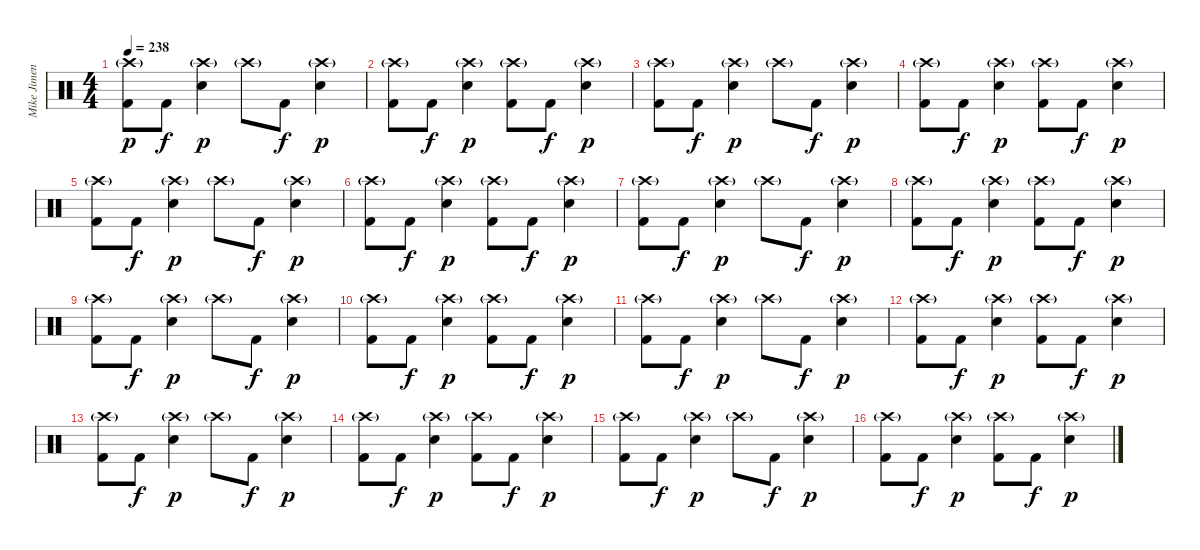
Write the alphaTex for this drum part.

\track ("Mike Jimenez" "Mike Jimen") {instrument percussion}
\staff {score}
\articulation defaults
\ts (4 4)
\tempo 238
\clef neutral
\ks c
("Crash high (hit)"{g} "Kick (hit) 2").8{dy p} "Kick (hit) 2".8{dy f} ("Crash high (hit)"{g} "Electric Snare (hit)").4{dy p} "Crash high (hit)"{g}.8 "Kick (hit) 2".8{dy f} ("Crash high (hit)"{g} "Electric Snare (hit)").4{dy p} |
("Crash high (hit)"{g} "Kick (hit) 2").8 "Kick (hit) 2".8{dy f} ("Crash high (hit)"{g} "Electric Snare (hit)").4{dy p} ("Crash high (hit)"{g} "Kick (hit) 2").8 "Kick (hit) 2".8{dy f} ("Crash high (hit)"{g} "Electric Snare (hit)").4{dy p} |
("Crash high (hit)"{g} "Kick (hit) 2").8 "Kick (hit) 2".8{dy f} ("Crash high (hit)"{g} "Electric Snare (hit)").4{dy p} "Crash high (hit)"{g}.8 "Kick (hit) 2".8{dy f} ("Crash high (hit)"{g} "Electric Snare (hit)").4{dy p} |
("Crash high (hit)"{g} "Kick (hit) 2").8 "Kick (hit) 2".8{dy f} ("Crash high (hit)"{g} "Electric Snare (hit)").4{dy p} ("Crash high (hit)"{g} "Kick (hit) 2").8 "Kick (hit) 2".8{dy f} ("Crash high (hit)"{g} "Electric Snare (hit)").4{dy p} |
("Crash high (hit)"{g} "Kick (hit) 2").8 "Kick (hit) 2".8{dy f} ("Crash high (hit)"{g} "Electric Snare (hit)").4{dy p} "Crash high (hit)"{g}.8 "Kick (hit) 2".8{dy f} ("Crash high (hit)"{g} "Electric Snare (hit)").4{dy p} |
("Crash high (hit)"{g} "Kick (hit) 2").8 "Kick (hit) 2".8{dy f} ("Crash high (hit)"{g} "Electric Snare (hit)").4{dy p} ("Crash high (hit)"{g} "Kick (hit) 2").8 "Kick (hit) 2".8{dy f} ("Crash high (hit)"{g} "Electric Snare (hit)").4{dy p} |
("Crash high (hit)"{g} "Kick (hit) 2").8 "Kick (hit) 2".8{dy f} ("Crash high (hit)"{g} "Electric Snare (hit)").4{dy p} "Crash high (hit)"{g}.8 "Kick (hit) 2".8{dy f} ("Crash high (hit)"{g} "Electric Snare (hit)").4{dy p} |
("Crash high (hit)"{g} "Kick (hit) 2").8 "Kick (hit) 2".8{dy f} ("Crash high (hit)"{g} "Electric Snare (hit)").4{dy p} ("Crash high (hit)"{g} "Kick (hit) 2").8 "Kick (hit) 2".8{dy f} ("Crash high (hit)"{g} "Electric Snare (hit)").4{dy p} |
("Crash high (hit)"{g} "Kick (hit) 2").8 "Kick (hit) 2".8{dy f} ("Crash high (hit)"{g} "Electric Snare (hit)").4{dy p} "Crash high (hit)"{g}.8 "Kick (hit) 2".8{dy f} ("Crash high (hit)"{g} "Electric Snare (hit)").4{dy p} |
("Crash high (hit)"{g} "Kick (hit) 2").8 "Kick (hit) 2".8{dy f} ("Crash high (hit)"{g} "Electric Snare (hit)").4{dy p} ("Crash high (hit)"{g} "Kick (hit) 2").8 "Kick (hit) 2".8{dy f} ("Crash high (hit)"{g} "Electric Snare (hit)").4{dy p} |
("Crash high (hit)"{g} "Kick (hit) 2").8 "Kick (hit) 2".8{dy f} ("Crash high (hit)"{g} "Electric Snare (hit)").4{dy p} "Crash high (hit)"{g}.8 "Kick (hit) 2".8{dy f} ("Crash high (hit)"{g} "Electric Snare (hit)").4{dy p} |
("Crash high (hit)"{g} "Kick (hit) 2").8 "Kick (hit) 2".8{dy f} ("Crash high (hit)"{g} "Electric Snare (hit)").4{dy p} ("Crash high (hit)"{g} "Kick (hit) 2").8 "Kick (hit) 2".8{dy f} ("Crash high (hit)"{g} "Electric Snare (hit)").4{dy p} |
("Crash high (hit)"{g} "Kick (hit) 2").8 "Kick (hit) 2".8{dy f} ("Crash high (hit)"{g} "Electric Snare (hit)").4{dy p} "Crash high (hit)"{g}.8 "Kick (hit) 2".8{dy f} ("Crash high (hit)"{g} "Electric Snare (hit)").4{dy p} |
("Crash high (hit)"{g} "Kick (hit) 2").8 "Kick (hit) 2".8{dy f} ("Crash high (hit)"{g} "Electric Snare (hit)").4{dy p} ("Crash high (hit)"{g} "Kick (hit) 2").8 "Kick (hit) 2".8{dy f} ("Crash high (hit)"{g} "Electric Snare (hit)").4{dy p} |
("Crash high (hit)"{g} "Kick (hit) 2").8 "Kick (hit) 2".8{dy f} ("Crash high (hit)"{g} "Electric Snare (hit)").4{dy p} "Crash high (hit)"{g}.8 "Kick (hit) 2".8{dy f} ("Crash high (hit)"{g} "Electric Snare (hit)").4{dy p} |
("Crash high (hit)"{g} "Kick (hit) 2").8 "Kick (hit) 2".8{dy f} ("Crash high (hit)"{g} "Electric Snare (hit)").4{dy p} ("Crash high (hit)"{g} "Kick (hit) 2").8 "Kick (hit) 2".8{dy f} ("Crash high (hit)"{g} "Electric Snare (hit)").4{dy p}
